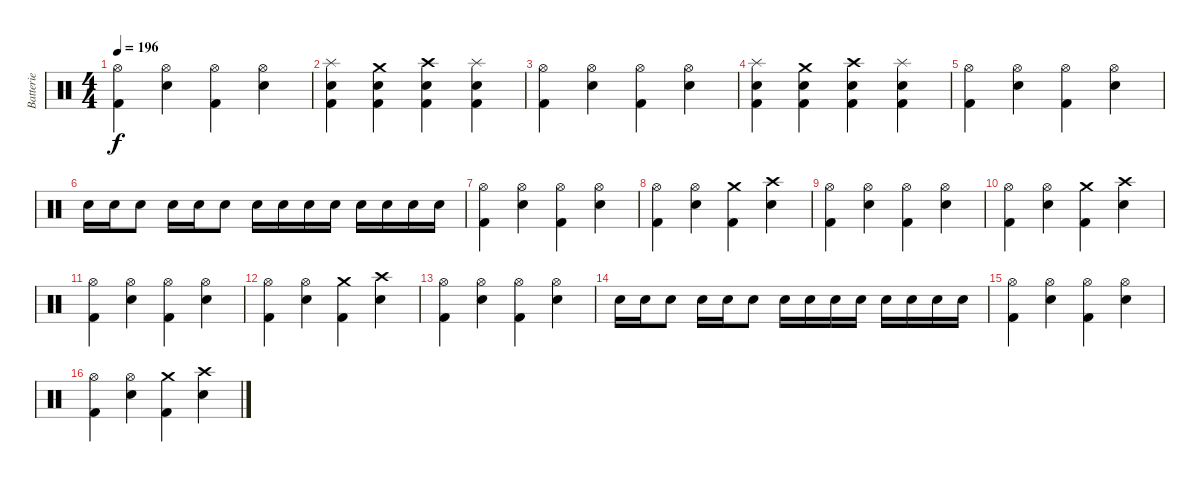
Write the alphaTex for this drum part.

\track ("Batterie" "Batterie") {instrument percussion}
\staff {score}
\articulation defaults
\ts (4 4)
\tempo 196
\clef neutral
\ks c
("Hi-Hat (open)" "Kick (hit) 2").4{dy f} ("Hi-Hat (open)" "Electric Snare (hit)").4 ("Hi-Hat (open)" "Kick (hit) 2").4 ("Hi-Hat (open)" "Electric Snare (hit)").4 |
("Splash (hit)" "Kick (hit) 2" "Electric Snare (hit)").4 ("Crash medium (hit)" "Kick (hit) 2" "Electric Snare (hit)").4 ("Crash high (hit)" "Kick (hit) 2" "Electric Snare (hit)").4 ("Splash (hit)" "Kick (hit) 2" "Electric Snare (hit)").4 |
("Hi-Hat (open)" "Kick (hit) 2").4 ("Hi-Hat (open)" "Electric Snare (hit)").4 ("Hi-Hat (open)" "Kick (hit) 2").4 ("Hi-Hat (open)" "Electric Snare (hit)").4 |
("Splash (hit)" "Kick (hit) 2" "Electric Snare (hit)").4 ("Crash medium (hit)" "Kick (hit) 2" "Electric Snare (hit)").4 ("Crash high (hit)" "Kick (hit) 2" "Electric Snare (hit)").4 ("Splash (hit)" "Kick (hit) 2" "Electric Snare (hit)").4 |
("Hi-Hat (open)" "Kick (hit) 2").4 ("Hi-Hat (open)" "Electric Snare (hit)").4 ("Hi-Hat (open)" "Kick (hit) 2").4 ("Hi-Hat (open)" "Electric Snare (hit)").4 |
"Electric Snare (hit)".16 "Electric Snare (hit)".16 "Electric Snare (hit)".8 "Electric Snare (hit)".16 "Electric Snare (hit)".16 "Electric Snare (hit)".8 "Electric Snare (hit)".16 "Electric Snare (hit)".16 "Electric Snare (hit)".16 "Electric Snare (hit)".16 "Electric Snare (hit)".16 "Electric Snare (hit)".16 "Electric Snare (hit)".16 "Electric Snare (hit)".16 |
("Hi-Hat (open)" "Kick (hit) 2").4 ("Hi-Hat (open)" "Electric Snare (hit)").4 ("Hi-Hat (open)" "Kick (hit) 2").4 ("Hi-Hat (open)" "Electric Snare (hit)").4 |
("Hi-Hat (open)" "Kick (hit) 2").4 ("Hi-Hat (open)" "Electric Snare (hit)").4 ("Crash medium (hit)" "Kick (hit) 2").4 ("Crash high (hit)" "Electric Snare (hit)").4 |
("Hi-Hat (open)" "Kick (hit) 2").4 ("Hi-Hat (open)" "Electric Snare (hit)").4 ("Hi-Hat (open)" "Kick (hit) 2").4 ("Hi-Hat (open)" "Electric Snare (hit)").4 |
("Hi-Hat (open)" "Kick (hit) 2").4 ("Hi-Hat (open)" "Electric Snare (hit)").4 ("Crash medium (hit)" "Kick (hit) 2").4 ("Crash high (hit)" "Electric Snare (hit)").4 |
("Hi-Hat (open)" "Kick (hit) 2").4 ("Hi-Hat (open)" "Electric Snare (hit)").4 ("Hi-Hat (open)" "Kick (hit) 2").4 ("Hi-Hat (open)" "Electric Snare (hit)").4 |
("Hi-Hat (open)" "Kick (hit) 2").4 ("Hi-Hat (open)" "Electric Snare (hit)").4 ("Crash medium (hit)" "Kick (hit) 2").4 ("Crash high (hit)" "Electric Snare (hit)").4 |
("Hi-Hat (open)" "Kick (hit) 2").4 ("Hi-Hat (open)" "Electric Snare (hit)").4 ("Hi-Hat (open)" "Kick (hit) 2").4 ("Hi-Hat (open)" "Electric Snare (hit)").4 |
"Electric Snare (hit)".16 "Electric Snare (hit)".16 "Electric Snare (hit)".8 "Electric Snare (hit)".16 "Electric Snare (hit)".16 "Electric Snare (hit)".8 "Electric Snare (hit)".16 "Electric Snare (hit)".16 "Electric Snare (hit)".16 "Electric Snare (hit)".16 "Electric Snare (hit)".16 "Electric Snare (hit)".16 "Electric Snare (hit)".16 "Electric Snare (hit)".16 |
("Hi-Hat (open)" "Kick (hit) 2").4 ("Hi-Hat (open)" "Electric Snare (hit)").4 ("Hi-Hat (open)" "Kick (hit) 2").4 ("Hi-Hat (open)" "Electric Snare (hit)").4 |
("Hi-Hat (open)" "Kick (hit) 2").4 ("Hi-Hat (open)" "Electric Snare (hit)").4 ("Crash medium (hit)" "Kick (hit) 2").4 ("Crash high (hit)" "Electric Snare (hit)").4
